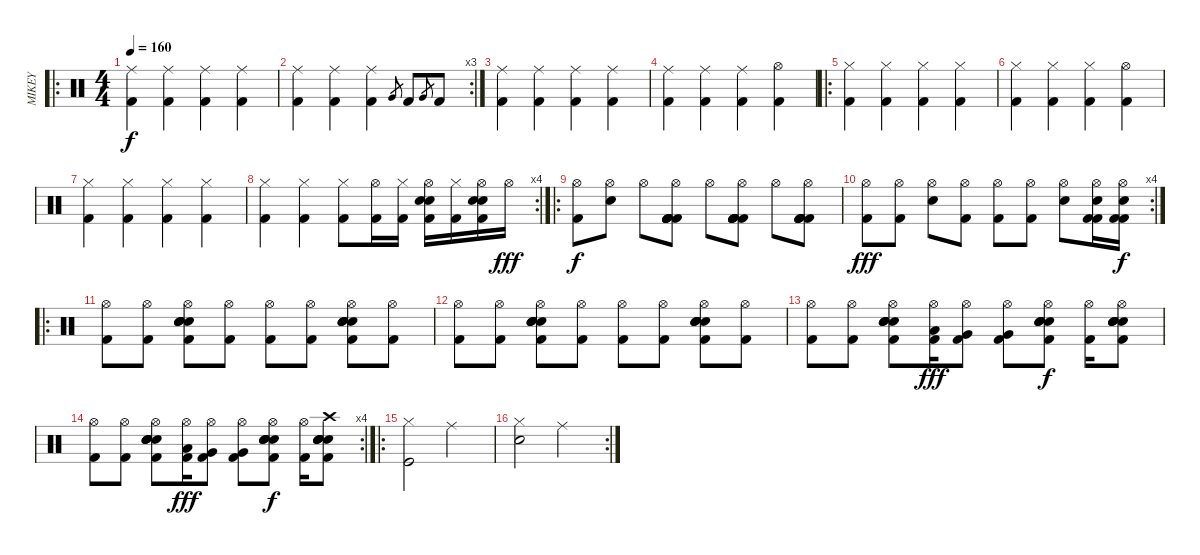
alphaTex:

\track ("MIKEY" "MIKEY") {instrument percussion}
\staff {score}
\articulation defaults
\ro
\ts (4 4)
\tempo 160
\clef neutral
\ks c
("Ride (middle)" "Kick (hit) 2").4{dy f} ("Ride (middle)" "Kick (hit) 2").4 ("Ride (middle)" "Kick (hit) 2").4 ("Ride (middle)" "Kick (hit) 2").4 |
\rc 3
("Ride (middle)" "Kick (hit) 2").4 ("Ride (middle)" "Kick (hit) 2").4 ("Ride (middle)" "Kick (hit) 2").4 "Very Low Tom (hit)".8{gr} "Kick (hit) 2".8 "Very Low Tom (hit)".8{gr} "Kick (hit) 2".8 |
("Ride (middle)" "Kick (hit) 2").4 ("Ride (middle)" "Kick (hit) 2").4 ("Ride (middle)" "Kick (hit) 2").4 ("Ride (middle)" "Kick (hit) 2").4 |
("Ride (middle)" "Kick (hit) 2").4 ("Ride (middle)" "Kick (hit) 2").4 ("Ride (middle)" "Kick (hit) 2").4 ("Hi-Hat (open)" "Kick (hit) 2").4 |
\ro
("Hi-Hat (closed)" "Kick (hit) 2").4 ("Hi-Hat (closed)" "Kick (hit) 2").4 ("Hi-Hat (closed)" "Kick (hit) 2").4 ("Hi-Hat (closed)" "Kick (hit) 2").4 |
("Hi-Hat (closed)" "Kick (hit) 2").4 ("Hi-Hat (closed)" "Kick (hit) 2").4 ("Hi-Hat (closed)" "Kick (hit) 2").4 ("Hi-Hat (open)" "Kick (hit) 2").4 |
("Hi-Hat (closed)" "Kick (hit) 2").4 ("Hi-Hat (closed)" "Kick (hit) 2").4 ("Hi-Hat (closed)" "Kick (hit) 2").4 ("Hi-Hat (closed)" "Kick (hit) 2").4 |
\rc 4
("Hi-Hat (closed)" "Kick (hit) 2").4 ("Hi-Hat (closed)" "Kick (hit) 2").4 ("Hi-Hat (closed)" "Kick (hit) 2").8 ("Hi-Hat (open)" "Kick (hit) 2").16 ("Hi-Hat (closed)" "Kick (hit) 2").16 ("Hi-Hat (open)" "Kick (hit) 2" "Electric Snare (hit)" "Electric Snare (hit)").16 ("Hi-Hat (closed)" "Kick (hit) 2").16 ("Hi-Hat (open)" "Kick (hit) 2" "Electric Snare (hit)" "Electric Snare (hit)").16 "Hi-Hat (open)".16{dy fff} |
\ro
("Kick (hit) 2" "Hi-Hat (open)").8{dy f} ("Electric Snare (hit)" "Hi-Hat (open)").8 "Hi-Hat (open)".8 ("Kick (hit) 2" "Kick (hit) 2" "Kick (hit) 2" "Kick (hit) 2" "Kick (hit) 2" "Hi-Hat (open)").8 "Hi-Hat (open)".8 ("Kick (hit) 2" "Kick (hit) 2" "Kick (hit) 2" "Kick (hit) 2" "Kick (hit) 2" "Hi-Hat (open)").8 "Hi-Hat (open)".8 ("Kick (hit) 2" "Kick (hit) 2" "Kick (hit) 2" "Kick (hit) 2" "Kick (hit) 2" "Hi-Hat (open)").8 |
\rc 4
("Kick (hit) 2" "Hi-Hat (open)").8{dy fff} ("Kick (hit) 2" "Hi-Hat (open)").8 ("Electric Snare (hit)" "Hi-Hat (open)").8 ("Kick (hit) 2" "Hi-Hat (open)").8 ("Kick (hit) 2" "Hi-Hat (open)").8 ("Kick (hit) 2" "Hi-Hat (open)").8 ("Electric Snare (hit)" "Hi-Hat (open)").8 ("Kick (hit) 2" "Kick (hit) 2" "Electric Snare (hit)" "Hi-Hat (open)").16 ("Kick (hit) 2" "Kick (hit) 2" "Electric Snare (hit)" "Hi-Hat (open)").16{dy f} |
\ro
("Hi-Hat (open)" "Kick (hit) 2").8 ("Hi-Hat (open)" "Kick (hit) 2").8 ("Kick (hit) 2" "Electric Snare (hit)" "Electric Snare (hit)" "Electric Snare (hit)" "Hi-Hat (open)" "Electric Snare (hit)").8 ("Hi-Hat (open)" "Kick (hit) 2").8 ("Hi-Hat (open)" "Kick (hit) 2").8 ("Hi-Hat (open)" "Kick (hit) 2").8 ("Kick (hit) 2" "Electric Snare (hit)" "Electric Snare (hit)" "Electric Snare (hit)" "Hi-Hat (open)" "Electric Snare (hit)").8 ("Hi-Hat (open)" "Kick (hit) 2").8 |
("Hi-Hat (open)" "Kick (hit) 2").8 ("Hi-Hat (open)" "Kick (hit) 2").8 ("Kick (hit) 2" "Electric Snare (hit)" "Electric Snare (hit)" "Electric Snare (hit)" "Hi-Hat (open)" "Electric Snare (hit)").8 ("Hi-Hat (open)" "Kick (hit) 2").8 ("Hi-Hat (open)" "Kick (hit) 2").8 ("Hi-Hat (open)" "Kick (hit) 2").8 ("Kick (hit) 2" "Electric Snare (hit)" "Electric Snare (hit)" "Electric Snare (hit)" "Hi-Hat (open)" "Electric Snare (hit)").8 ("Hi-Hat (open)" "Kick (hit) 2").8 |
("Hi-Hat (open)" "Kick (hit) 2").8 ("Hi-Hat (open)" "Kick (hit) 2").8 ("Kick (hit) 2" "Electric Snare (hit)" "Electric Snare (hit)" "Electric Snare (hit)" "Hi-Hat (open)" "Electric Snare (hit)").8 ("Low Tom (hit)" "Hi-Hat (open)" "Kick (hit) 2").16{dy fff} ("Very Low Tom (hit)" "Hi-Hat (open)" "Kick (hit) 2").8 ("Very Low Tom (hit)" "Hi-Hat (open)" "Kick (hit) 2").8 ("Kick (hit) 2" "Electric Snare (hit)" "Electric Snare (hit)" "Electric Snare (hit)" "Hi-Hat (open)" "Electric Snare (hit)").8{dy f} ("Hi-Hat (open)" "Kick (hit) 2").16 ("Kick (hit) 2" "Electric Snare (hit)" "Electric Snare (hit)" "Electric Snare (hit)" "Hi-Hat (open)" "Electric Snare (hit)").8 |
\rc 4
("Hi-Hat (open)" "Kick (hit) 2").8 ("Hi-Hat (open)" "Kick (hit) 2").8 ("Kick (hit) 2" "Electric Snare (hit)" "Electric Snare (hit)" "Electric Snare (hit)" "Hi-Hat (open)" "Electric Snare (hit)").8 ("Low Tom (hit)" "Hi-Hat (open)" "Kick (hit) 2").16{dy fff} ("Very Low Tom (hit)" "Hi-Hat (open)" "Kick (hit) 2").8 ("Very Low Tom (hit)" "Hi-Hat (open)" "Kick (hit) 2").8 ("Kick (hit) 2" "Electric Snare (hit)" "Electric Snare (hit)" "Electric Snare (hit)" "Hi-Hat (open)" "Electric Snare (hit)").8{dy f} ("Hi-Hat (open)" "Kick (hit) 2").16 ("Kick (hit) 2" "Electric Snare (hit)" "Electric Snare (hit)" "Electric Snare (hit)" "Crash high (hit)" "Electric Snare (hit)").8 |
\ro
("Kick (hit)" "Hi-Hat (closed)").2 "Ride (middle)".2 |
\rc 2
("Snare (hit) 2" "Hi-Hat (closed)").2 "Ride (middle)".2
